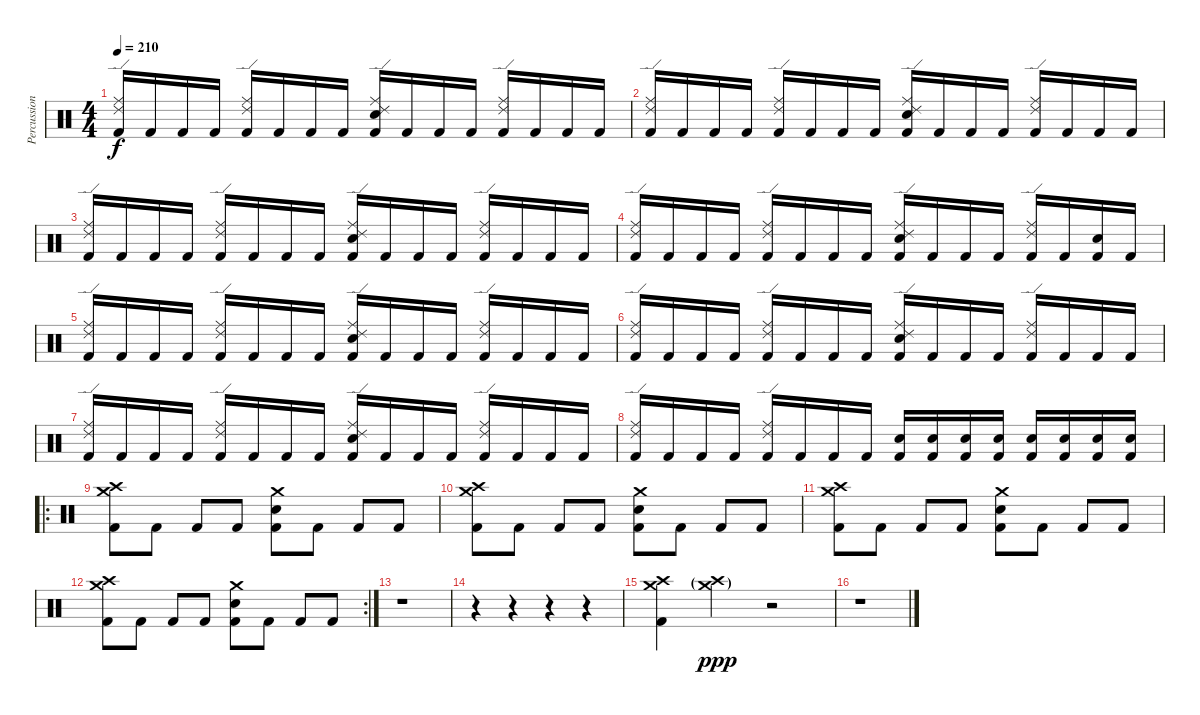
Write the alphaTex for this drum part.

\track ("Percussion" "Percussion") {instrument percussion}
\staff {score}
\articulation defaults
\ts (4 4)
\tempo 210
\clef neutral
\ks c
("Ride (edge) 2" "Ride (middle)" "Kick (hit) 2").16{dy f} "Kick (hit) 2".16 "Kick (hit) 2".16 "Kick (hit) 2".16 ("Ride (edge) 2" "Ride (middle)" "Kick (hit) 2").16 "Kick (hit) 2".16 "Kick (hit) 2".16 "Kick (hit) 2".16 ("Ride (edge) 2" "Ride (middle)" "Electric Snare (hit)" "Kick (hit) 2").16 "Kick (hit) 2".16 "Kick (hit) 2".16 "Kick (hit) 2".16 ("Ride (edge) 2" "Ride (middle)" "Kick (hit) 2").16 "Kick (hit) 2".16 "Kick (hit) 2".16 "Kick (hit) 2".16 |
("Ride (edge) 2" "Ride (middle)" "Kick (hit) 2").16 "Kick (hit) 2".16 "Kick (hit) 2".16 "Kick (hit) 2".16 ("Ride (edge) 2" "Ride (middle)" "Kick (hit) 2").16 "Kick (hit) 2".16 "Kick (hit) 2".16 "Kick (hit) 2".16 ("Ride (edge) 2" "Ride (middle)" "Electric Snare (hit)" "Kick (hit) 2").16 "Kick (hit) 2".16 "Kick (hit) 2".16 "Kick (hit) 2".16 ("Ride (edge) 2" "Ride (middle)" "Kick (hit) 2").16 "Kick (hit) 2".16 "Kick (hit) 2".16 "Kick (hit) 2".16 |
("Ride (edge) 2" "Ride (middle)" "Kick (hit) 2").16 "Kick (hit) 2".16 "Kick (hit) 2".16 "Kick (hit) 2".16 ("Ride (edge) 2" "Ride (middle)" "Kick (hit) 2").16 "Kick (hit) 2".16 "Kick (hit) 2".16 "Kick (hit) 2".16 ("Ride (edge) 2" "Ride (middle)" "Electric Snare (hit)" "Kick (hit) 2").16 "Kick (hit) 2".16 "Kick (hit) 2".16 "Kick (hit) 2".16 ("Ride (edge) 2" "Ride (middle)" "Kick (hit) 2").16 "Kick (hit) 2".16 "Kick (hit) 2".16 "Kick (hit) 2".16 |
("Ride (edge) 2" "Ride (middle)" "Kick (hit) 2").16 "Kick (hit) 2".16 "Kick (hit) 2".16 "Kick (hit) 2".16 ("Ride (edge) 2" "Ride (middle)" "Kick (hit) 2").16 "Kick (hit) 2".16 "Kick (hit) 2".16 "Kick (hit) 2".16 ("Ride (edge) 2" "Ride (middle)" "Electric Snare (hit)" "Kick (hit) 2").16 "Kick (hit) 2".16 "Kick (hit) 2".16 "Kick (hit) 2".16 ("Ride (edge) 2" "Ride (middle)" "Kick (hit) 2").16 "Kick (hit) 2".16 ("Electric Snare (hit)" "Kick (hit) 2").16 "Kick (hit) 2".16 |
("Ride (edge) 2" "Ride (middle)" "Kick (hit) 2").16 "Kick (hit) 2".16 "Kick (hit) 2".16 "Kick (hit) 2".16 ("Ride (edge) 2" "Ride (middle)" "Kick (hit) 2").16 "Kick (hit) 2".16 "Kick (hit) 2".16 "Kick (hit) 2".16 ("Ride (edge) 2" "Ride (middle)" "Electric Snare (hit)" "Kick (hit) 2").16 "Kick (hit) 2".16 "Kick (hit) 2".16 "Kick (hit) 2".16 ("Ride (edge) 2" "Ride (middle)" "Kick (hit) 2").16 "Kick (hit) 2".16 "Kick (hit) 2".16 "Kick (hit) 2".16 |
("Ride (edge) 2" "Ride (middle)" "Kick (hit) 2").16 "Kick (hit) 2".16 "Kick (hit) 2".16 "Kick (hit) 2".16 ("Ride (edge) 2" "Ride (middle)" "Kick (hit) 2").16 "Kick (hit) 2".16 "Kick (hit) 2".16 "Kick (hit) 2".16 ("Ride (edge) 2" "Ride (middle)" "Electric Snare (hit)" "Kick (hit) 2").16 "Kick (hit) 2".16 "Kick (hit) 2".16 "Kick (hit) 2".16 ("Ride (edge) 2" "Ride (middle)" "Kick (hit) 2").16 "Kick (hit) 2".16 "Kick (hit) 2".16 "Kick (hit) 2".16 |
("Ride (edge) 2" "Ride (middle)" "Kick (hit) 2").16 "Kick (hit) 2".16 "Kick (hit) 2".16 "Kick (hit) 2".16 ("Ride (edge) 2" "Ride (middle)" "Kick (hit) 2").16 "Kick (hit) 2".16 "Kick (hit) 2".16 "Kick (hit) 2".16 ("Ride (edge) 2" "Ride (middle)" "Electric Snare (hit)" "Kick (hit) 2").16 "Kick (hit) 2".16 "Kick (hit) 2".16 "Kick (hit) 2".16 ("Ride (edge) 2" "Ride (middle)" "Kick (hit) 2").16 "Kick (hit) 2".16 "Kick (hit) 2".16 "Kick (hit) 2".16 |
("Ride (edge) 2" "Ride (middle)" "Kick (hit) 2").16 "Kick (hit) 2".16 "Kick (hit) 2".16 "Kick (hit) 2".16 ("Ride (edge) 2" "Ride (middle)" "Kick (hit) 2").16 "Kick (hit) 2".16 "Kick (hit) 2".16 "Kick (hit) 2".16 ("Electric Snare (hit)" "Kick (hit) 2").16 ("Electric Snare (hit)" "Kick (hit) 2").16 ("Electric Snare (hit)" "Kick (hit) 2").16 ("Electric Snare (hit)" "Kick (hit) 2").16 ("Electric Snare (hit)" "Kick (hit) 2").16 ("Electric Snare (hit)" "Kick (hit) 2").16 ("Electric Snare (hit)" "Kick (hit) 2").16 ("Electric Snare (hit)" "Kick (hit) 2").16 |
\ro
("Crash medium (hit)" "Crash high (hit)" "Kick (hit) 2").8 "Kick (hit) 2".8 "Kick (hit) 2".8 "Kick (hit) 2".8 ("Crash medium (hit)" "Electric Snare (hit)" "Kick (hit) 2").8 "Kick (hit) 2".8 "Kick (hit) 2".8 "Kick (hit) 2".8 |
("Crash medium (hit)" "Crash high (hit)" "Kick (hit) 2").8 "Kick (hit) 2".8 "Kick (hit) 2".8 "Kick (hit) 2".8 ("Crash medium (hit)" "Electric Snare (hit)" "Kick (hit) 2").8 "Kick (hit) 2".8 "Kick (hit) 2".8 "Kick (hit) 2".8 |
("Crash medium (hit)" "Crash high (hit)" "Kick (hit) 2").8 "Kick (hit) 2".8 "Kick (hit) 2".8 "Kick (hit) 2".8 ("Crash medium (hit)" "Electric Snare (hit)" "Kick (hit) 2").8 "Kick (hit) 2".8 "Kick (hit) 2".8 "Kick (hit) 2".8 |
\rc 2
("Crash medium (hit)" "Crash high (hit)" "Kick (hit) 2").8 "Kick (hit) 2".8 "Kick (hit) 2".8 "Kick (hit) 2".8 ("Crash medium (hit)" "Electric Snare (hit)" "Kick (hit) 2").8 "Kick (hit) 2".8 "Kick (hit) 2".8 "Kick (hit) 2".8 |
r.1 |
r.4 r.4 r.4 r.4 |
("Crash medium (hit)" "Crash high (hit)" "Kick (hit) 2").4 ("Crash medium (hit)"{g} "Crash high (hit)"{g}).4{dy ppp volume 0} r.2 |
r.1
